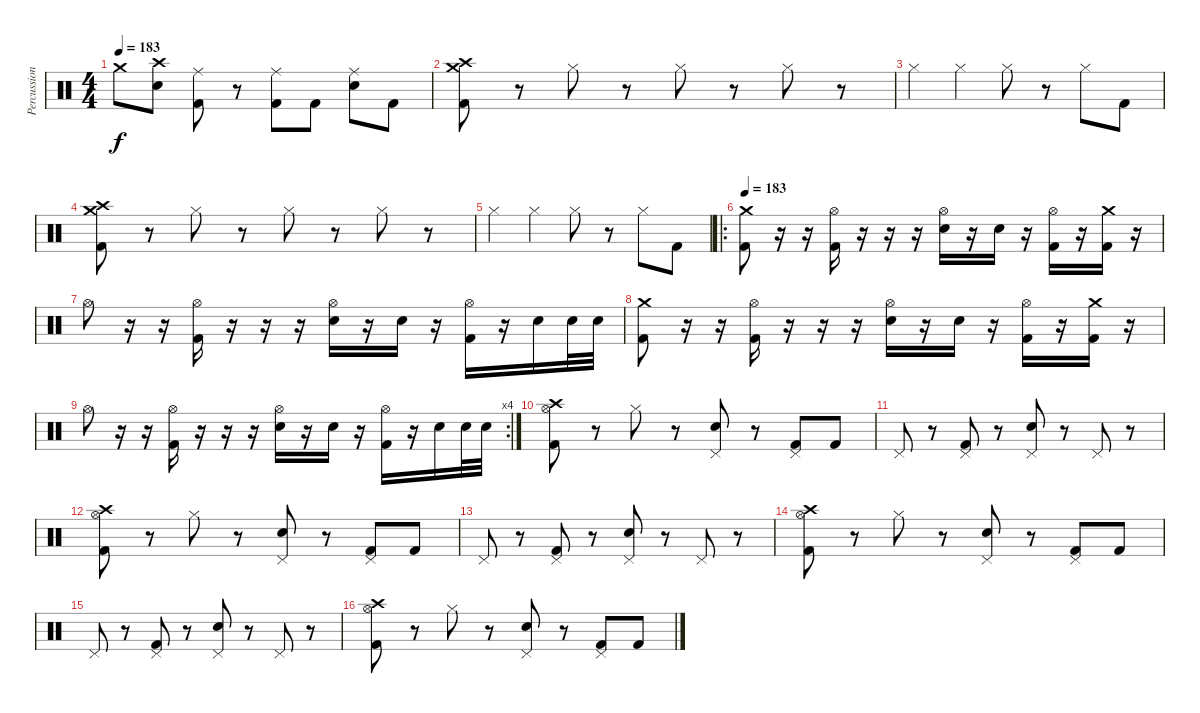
\track ("Percussion" "Percussion") {instrument percussion}
\staff {score}
\articulation defaults
\ts (4 4)
\tempo 183
\clef neutral
\ks c "Crash medium (hit)".8{dy f}
("Crash high (hit)" "Electric Snare (hit)").8 ("Ride (middle)" "Kick (hit) 2").8 r.8 ("Ride (middle)" "Kick (hit) 2").8 "Kick (hit) 2".8 ("Ride (middle)" "Electric Snare (hit)").8 "Kick (hit) 2".8 |
("Crash high (hit)" "Crash medium (hit)" "Kick (hit) 2").8 r.8 "Hi-Hat (closed)".8 r.8 "Hi-Hat (closed)".8 r.8 "Hi-Hat (closed)".8 r.8 |
"Hi-Hat (closed)".4 "Hi-Hat (closed)".4 "Hi-Hat (closed)".8 r.8 "Hi-Hat (closed)".8 "Kick (hit) 2".8 |
("Crash high (hit)" "Crash medium (hit)" "Kick (hit) 2").8 r.8 "Hi-Hat (closed)".8 r.8 "Hi-Hat (closed)".8 r.8 "Hi-Hat (closed)".8 r.8 |
"Hi-Hat (closed)".4 "Hi-Hat (closed)".4 "Hi-Hat (closed)".8 r.8 "Hi-Hat (closed)".8 "Kick (hit) 2".8 |
\ro
\section ("" "")
\tempo 183
("Crash medium (hit)" "Kick (hit) 2").8 r.16 r.16 ("Hi-Hat (open)" "Kick (hit) 2").16 r.16 r.16 r.16 ("Hi-Hat (open)" "Electric Snare (hit)").16 r.16 "Electric Snare (hit)".16 r.16 ("Hi-Hat (open)" "Kick (hit) 2").16 r.16 ("Crash medium (hit)" "Kick (hit) 2").16 r.16 |
"Hi-Hat (open)".8 r.16 r.16 ("Hi-Hat (open)" "Kick (hit) 2").16 r.16 r.16 r.16 ("Hi-Hat (open)" "Electric Snare (hit)").16 r.16 "Electric Snare (hit)".16 r.16 ("Hi-Hat (open)" "Kick (hit) 2").16 r.16 "Electric Snare (hit)".16 "Electric Snare (hit)".32 "Electric Snare (hit)".32 |
("Crash medium (hit)" "Kick (hit) 2").8 r.16 r.16 ("Hi-Hat (open)" "Kick (hit) 2").16 r.16 r.16 r.16 ("Hi-Hat (open)" "Electric Snare (hit)").16 r.16 "Electric Snare (hit)".16 r.16 ("Hi-Hat (open)" "Kick (hit) 2").16 r.16 ("Crash medium (hit)" "Kick (hit) 2").16 r.16 |
\rc 4 "Hi-Hat (open)".8
r.16 r.16 ("Hi-Hat (open)" "Kick (hit) 2").16 r.16 r.16 r.16 ("Hi-Hat (open)" "Electric Snare (hit)").16 r.16 "Electric Snare (hit)".16 r.16 ("Hi-Hat (open)" "Kick (hit) 2").16 r.16 "Electric Snare (hit)".16 "Electric Snare (hit)".32 "Electric Snare (hit)".32 |
("Crash high (hit)" "Hi-Hat (open)" "Kick (hit) 2").8 r.8 "Hi-Hat (closed)".8 r.8 ("Pedal Hi-Hat (hit)" "Electric Snare (hit)").8 r.8 ("Pedal Hi-Hat (hit)" "Kick (hit) 2").8 "Kick (hit) 2".8 |
"Pedal Hi-Hat (hit)".8 r.8 ("Pedal Hi-Hat (hit)" "Kick (hit) 2").8 r.8 ("Pedal Hi-Hat (hit)" "Electric Snare (hit)").8 r.8 "Pedal Hi-Hat (hit)".8 r.8 |
("Crash high (hit)" "Hi-Hat (open)" "Kick (hit) 2").8 r.8 "Hi-Hat (closed)".8 r.8 ("Pedal Hi-Hat (hit)" "Electric Snare (hit)").8 r.8 ("Pedal Hi-Hat (hit)" "Kick (hit) 2").8 "Kick (hit) 2".8 |
"Pedal Hi-Hat (hit)".8 r.8 ("Pedal Hi-Hat (hit)" "Kick (hit) 2").8 r.8 ("Pedal Hi-Hat (hit)" "Electric Snare (hit)").8 r.8 "Pedal Hi-Hat (hit)".8 r.8 |
("Crash high (hit)" "Hi-Hat (open)" "Kick (hit) 2").8 r.8 "Hi-Hat (closed)".8 r.8 ("Pedal Hi-Hat (hit)" "Electric Snare (hit)").8 r.8 ("Pedal Hi-Hat (hit)" "Kick (hit) 2").8 "Kick (hit) 2".8 |
"Pedal Hi-Hat (hit)".8 r.8 ("Pedal Hi-Hat (hit)" "Kick (hit) 2").8 r.8 ("Pedal Hi-Hat (hit)" "Electric Snare (hit)").8 r.8 "Pedal Hi-Hat (hit)".8 r.8 |
("Crash high (hit)" "Hi-Hat (open)" "Kick (hit) 2").8 r.8 "Hi-Hat (closed)".8 r.8 ("Pedal Hi-Hat (hit)" "Electric Snare (hit)").8 r.8 ("Pedal Hi-Hat (hit)" "Kick (hit) 2").8 "Kick (hit) 2".8
